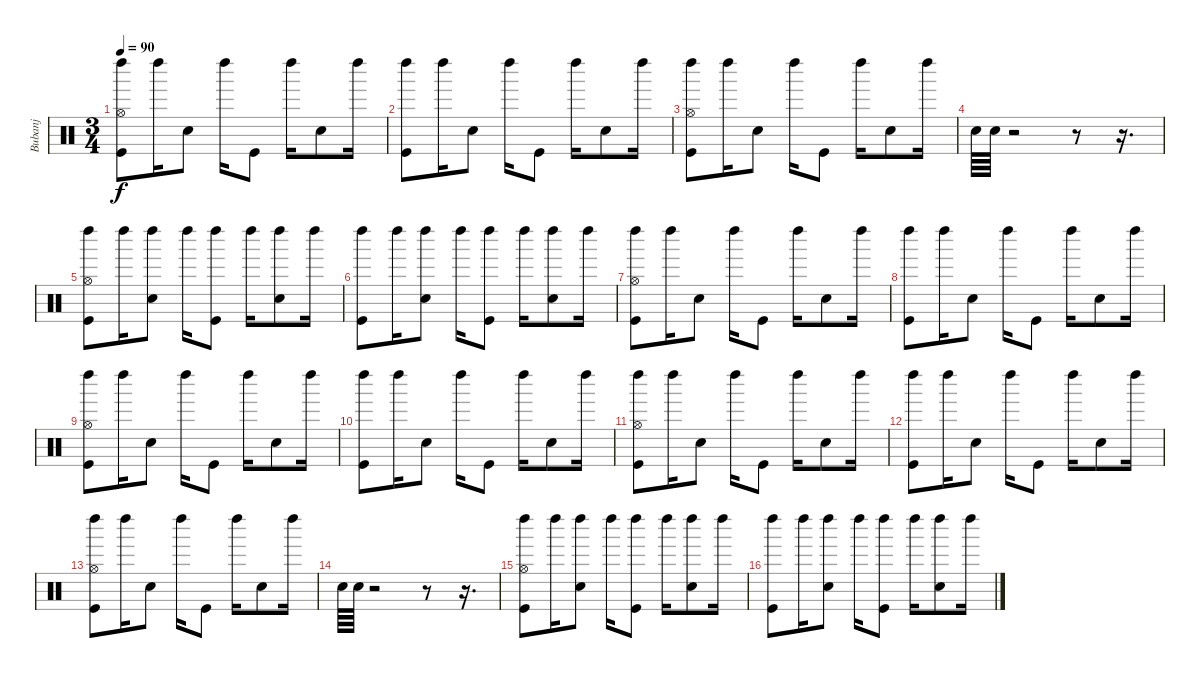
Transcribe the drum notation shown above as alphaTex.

\track ("Bubanj" "Bubanj") {instrument percussion}
\staff {score}
\articulation defaults
\ts (3 4)
\tempo 90
\clef neutral
\ks c
("Left Maraca (hit)" "Hi-Hat (open)" "Kick (hit)").8{dy f} "Left Maraca (hit)".16 "Snare (hit) 2".8 "Left Maraca (hit)".16 "Kick (hit)".8 "Left Maraca (hit)".16 "Snare (hit) 2".8 "Left Maraca (hit)".16 |
("Left Maraca (hit)" "Kick (hit)").8 "Left Maraca (hit)".16 "Snare (hit) 2".8 "Left Maraca (hit)".16 "Kick (hit)".8 "Left Maraca (hit)".16 "Snare (hit) 2".8 "Left Maraca (hit)".16 |
("Left Maraca (hit)" "Hi-Hat (open)" "Kick (hit)").8 "Left Maraca (hit)".16 "Snare (hit) 2".8 "Left Maraca (hit)".16 "Kick (hit)".8 "Left Maraca (hit)".16 "Snare (hit) 2".8 "Left Maraca (hit)".16 |
"Snare (hit) 2".64 "Snare (hit) 2".64 r.2 r.8 r.16{d} |
("Left Maraca (hit)" "Hi-Hat (open)" "Kick (hit)").8 "Left Maraca (hit)".16 ("Left Maraca (hit)" "Snare (hit) 2").8 "Left Maraca (hit)".16 ("Left Maraca (hit)" "Kick (hit)").8 "Left Maraca (hit)".16 ("Left Maraca (hit)" "Snare (hit) 2").8 "Left Maraca (hit)".16 |
("Left Maraca (hit)" "Kick (hit)").8 "Left Maraca (hit)".16 ("Left Maraca (hit)" "Snare (hit) 2").8 "Left Maraca (hit)".16 ("Left Maraca (hit)" "Kick (hit)").8 "Left Maraca (hit)".16 ("Left Maraca (hit)" "Snare (hit) 2").8 "Left Maraca (hit)".16 |
("Left Maraca (hit)" "Hi-Hat (open)" "Kick (hit)").8 "Left Maraca (hit)".16 "Snare (hit) 2".8 "Left Maraca (hit)".16 "Kick (hit)".8 "Left Maraca (hit)".16 "Snare (hit) 2".8 "Left Maraca (hit)".16 |
("Left Maraca (hit)" "Kick (hit)").8 "Left Maraca (hit)".16 "Snare (hit) 2".8 "Left Maraca (hit)".16 "Kick (hit)".8 "Left Maraca (hit)".16 "Snare (hit) 2".8 "Left Maraca (hit)".16 |
("Left Maraca (hit)" "Hi-Hat (open)" "Kick (hit)").8 "Left Maraca (hit)".16 "Snare (hit) 2".8 "Left Maraca (hit)".16 "Kick (hit)".8 "Left Maraca (hit)".16 "Snare (hit) 2".8 "Left Maraca (hit)".16 |
("Left Maraca (hit)" "Kick (hit)").8 "Left Maraca (hit)".16 "Snare (hit) 2".8 "Left Maraca (hit)".16 "Kick (hit)".8 "Left Maraca (hit)".16 "Snare (hit) 2".8 "Left Maraca (hit)".16 |
("Left Maraca (hit)" "Hi-Hat (open)" "Kick (hit)").8 "Left Maraca (hit)".16 "Snare (hit) 2".8 "Left Maraca (hit)".16 "Kick (hit)".8 "Left Maraca (hit)".16 "Snare (hit) 2".8 "Left Maraca (hit)".16 |
("Left Maraca (hit)" "Kick (hit)").8 "Left Maraca (hit)".16 "Snare (hit) 2".8 "Left Maraca (hit)".16 "Kick (hit)".8 "Left Maraca (hit)".16 "Snare (hit) 2".8 "Left Maraca (hit)".16 |
("Left Maraca (hit)" "Hi-Hat (open)" "Kick (hit)").8 "Left Maraca (hit)".16 "Snare (hit) 2".8 "Left Maraca (hit)".16 "Kick (hit)".8 "Left Maraca (hit)".16 "Snare (hit) 2".8 "Left Maraca (hit)".16 |
"Snare (hit) 2".64 "Snare (hit) 2".64 r.2 r.8 r.16{d} |
("Left Maraca (hit)" "Hi-Hat (open)" "Kick (hit)").8 "Left Maraca (hit)".16 ("Left Maraca (hit)" "Snare (hit) 2").8 "Left Maraca (hit)".16 ("Left Maraca (hit)" "Kick (hit)").8 "Left Maraca (hit)".16 ("Left Maraca (hit)" "Snare (hit) 2").8 "Left Maraca (hit)".16 |
("Left Maraca (hit)" "Kick (hit)").8 "Left Maraca (hit)".16 ("Left Maraca (hit)" "Snare (hit) 2").8 "Left Maraca (hit)".16 ("Left Maraca (hit)" "Kick (hit)").8 "Left Maraca (hit)".16 ("Left Maraca (hit)" "Snare (hit) 2").8 "Left Maraca (hit)".16
